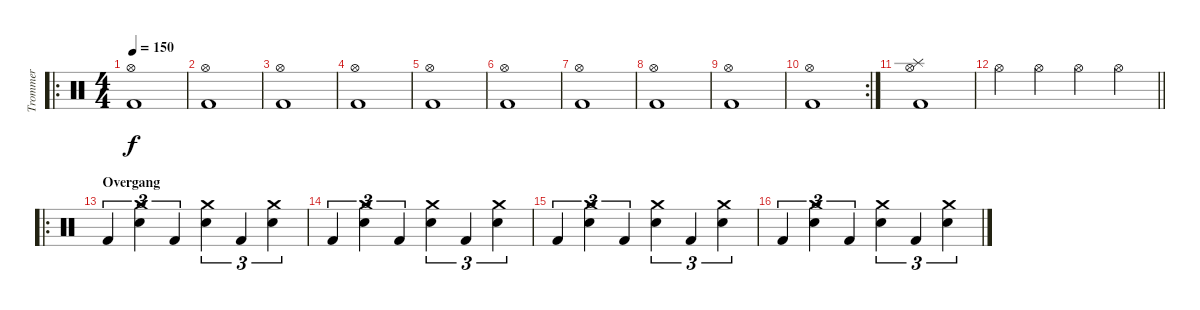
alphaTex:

\track ("Trommer" "Trommer") {instrument percussion}
\staff {score}
\articulation defaults
\ro
\ts (4 4)
\tempo 150
\clef neutral
\ks c
("Hi-Hat (open)" "Kick (hit) 2").1{dy f} |
("Hi-Hat (open)" "Kick (hit) 2").1 |
("Hi-Hat (open)" "Kick (hit) 2").1 |
("Hi-Hat (open)" "Kick (hit) 2").1 |
("Hi-Hat (open)" "Kick (hit) 2").1 |
("Hi-Hat (open)" "Kick (hit) 2").1 |
("Hi-Hat (open)" "Kick (hit) 2").1 |
("Hi-Hat (open)" "Kick (hit) 2").1 |
("Hi-Hat (open)" "Kick (hit) 2").1 |
\rc 2
("Hi-Hat (open)" "Kick (hit) 2").1 |
("Splash (hit)" "Hi-Hat (open)" "Kick (hit) 2").1 |
\barLineRight lightlight "Hi-Hat (open)".4 "Hi-Hat (open)".4 "Hi-Hat (open)".4 "Hi-Hat (open)".4
|
\ro
\section ("" "Overgang")
"Kick (hit) 2".4{tu (3 2)} ("Crash medium (hit)" "Snare (hit) 2").4{tu (3 2)} "Kick (hit) 2".4{tu (3 2)} ("Crash medium (hit)" "Snare (hit) 2").4{tu (3 2)} "Kick (hit) 2".4{tu (3 2)} ("Crash medium (hit)" "Snare (hit) 2").4{tu (3 2)} |
"Kick (hit) 2".4{tu (3 2)} ("Crash medium (hit)" "Snare (hit) 2").4{tu (3 2)} "Kick (hit) 2".4{tu (3 2)} ("Crash medium (hit)" "Snare (hit) 2").4{tu (3 2)} "Kick (hit) 2".4{tu (3 2)} ("Crash medium (hit)" "Snare (hit) 2").4{tu (3 2)} |
"Kick (hit) 2".4{tu (3 2)} ("Crash medium (hit)" "Snare (hit) 2").4{tu (3 2)} "Kick (hit) 2".4{tu (3 2)} ("Crash medium (hit)" "Snare (hit) 2").4{tu (3 2)} "Kick (hit) 2".4{tu (3 2)} ("Crash medium (hit)" "Snare (hit) 2").4{tu (3 2)} |
"Kick (hit) 2".4{tu (3 2)} ("Crash medium (hit)" "Snare (hit) 2").4{tu (3 2)} "Kick (hit) 2".4{tu (3 2)} ("Crash medium (hit)" "Snare (hit) 2").4{tu (3 2)} "Kick (hit) 2".4{tu (3 2)} ("Crash medium (hit)" "Snare (hit) 2").4{tu (3 2)}
